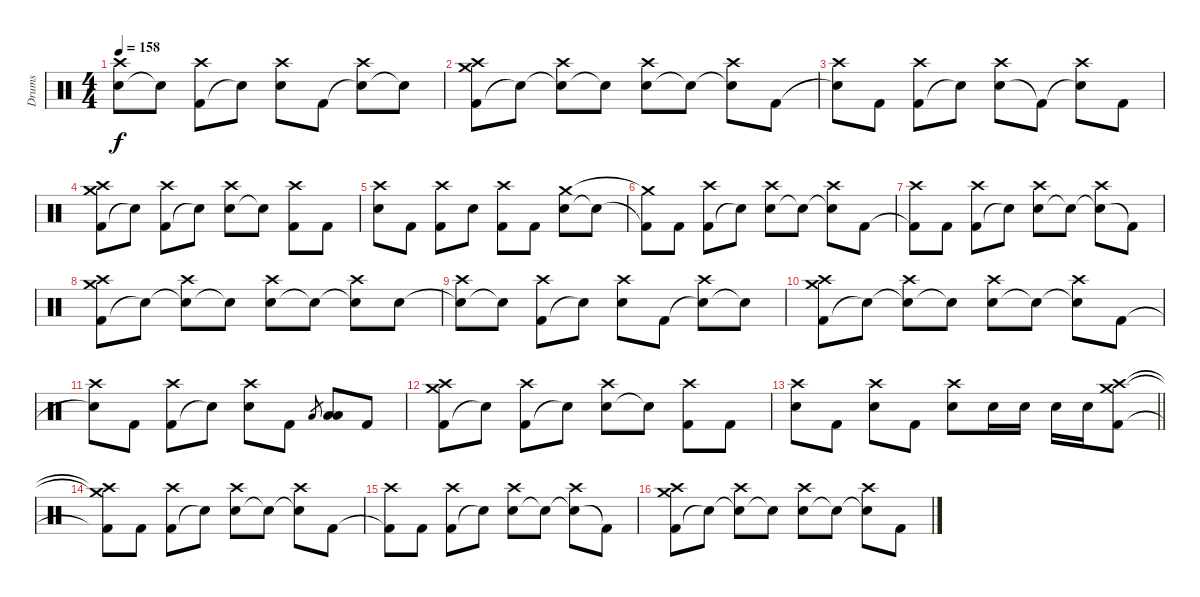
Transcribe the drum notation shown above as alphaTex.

\track ("Drums" "Drums") {instrument percussion}
\staff {score}
\articulation defaults
\ts (4 4)
\tempo 158
\clef neutral
\ks c
("Snare (hit)"{t} "Crash high (hit)").8{dy f} "Snare (hit)"{t}.8 ("Kick (hit) 2" "Crash high (hit)").8 "Snare (hit)"{t}.8 ("Electric Snare (hit)" "Crash high (hit)").8 "Kick (hit) 2".8 ("Snare (hit)"{t} "Crash high (hit)").8 "Snare (hit)"{t}.8 |
("Kick (hit) 2" "Crash medium (hit)" "Crash high (hit)").8 "Snare (hit)"{t}.8 ("Snare (hit)"{t} "Crash high (hit)").8 "Snare (hit)"{t}.8 ("Electric Snare (hit)" "Crash high (hit)").8 "Snare (hit)"{t}.8 ("Snare (hit)"{t} "Crash high (hit)").8 "Kick (hit) 2".8 |
("Snare (hit)"{t} "Crash high (hit)").8 "Kick (hit) 2".8 ("Kick (hit) 2" "Crash high (hit)").8 "Snare (hit)"{t}.8 ("Electric Snare (hit)" "Crash high (hit)").8 "Kick (hit) 2"{t}.8 ("Snare (hit)"{t} "Crash high (hit)").8 "Kick (hit) 2".8 |
("Kick (hit) 2" "Crash medium (hit)" "Crash high (hit)").8 "Snare (hit)"{t}.8 ("Kick (hit) 2" "Crash high (hit)").8 "Snare (hit)"{t}.8 ("Electric Snare (hit)" "Crash high (hit)").8 "Snare (hit)"{t}.8 ("Kick (hit) 2" "Crash high (hit)").8 "Kick (hit) 2".8 |
("Electric Snare (hit)" "Crash high (hit)").8 "Kick (hit) 2".8 ("Kick (hit) 2" "Crash high (hit)").8 "Electric Snare (hit)".8 ("Kick (hit) 2" "Crash high (hit)").8 "Kick (hit) 2".8 ("Electric Snare (hit)" "Crash medium (hit)").8 "Snare (hit)"{t}.8 |
("Kick (hit) 2"{t} "Crash medium (hit)"{t}).8 "Kick (hit) 2".8 ("Kick (hit) 2" "Crash high (hit)").8 "Snare (hit)"{t}.8 ("Electric Snare (hit)" "Crash high (hit)").8 "Snare (hit)"{t}.8 ("Snare (hit)"{t} "Crash high (hit)").8 "Kick (hit) 2".8 |
("Kick (hit) 2"{t} "Crash high (hit)").8 "Kick (hit) 2".8 ("Kick (hit) 2" "Crash high (hit)").8 "Snare (hit)"{t}.8 ("Electric Snare (hit)" "Crash high (hit)").8 "Snare (hit)"{t}.8 ("Snare (hit)"{t} "Crash high (hit)").8 "Kick (hit) 2"{t}.8 |
("Kick (hit) 2" "Crash medium (hit)" "Crash high (hit)").8 "Snare (hit)"{t}.8 ("Snare (hit)"{t} "Crash high (hit)").8 "Snare (hit)"{t}.8 ("Electric Snare (hit)" "Crash high (hit)").8 "Snare (hit)"{t}.8 ("Snare (hit)"{t} "Crash high (hit)").8 "Electric Snare (hit)".8 |
("Snare (hit)"{t} "Crash high (hit)").8 "Snare (hit)"{t}.8 ("Kick (hit) 2" "Crash high (hit)").8 "Snare (hit)"{t}.8 ("Electric Snare (hit)" "Crash high (hit)").8 "Kick (hit) 2".8 ("Snare (hit)"{t} "Crash high (hit)").8 "Snare (hit)"{t}.8 |
("Kick (hit) 2" "Crash medium (hit)" "Crash high (hit)").8 "Snare (hit)"{t}.8 ("Snare (hit)"{t} "Crash high (hit)").8 "Snare (hit)"{t}.8 ("Electric Snare (hit)" "Crash high (hit)").8 "Snare (hit)"{t}.8 ("Snare (hit)"{t} "Crash high (hit)").8 "Kick (hit) 2".8 |
("Snare (hit)"{t} "Crash high (hit)").8 "Kick (hit) 2".8 ("Kick (hit) 2" "Crash high (hit)").8 "Snare (hit)"{t}.8 ("Electric Snare (hit)" "Crash high (hit)").8 "Kick (hit) 2".8 "Low Tom (hit)".8{gr} ("Low Tom (hit)" "Low Floor Tom (hit)").8 "Kick (hit) 2".8 |
("Kick (hit) 2" "Crash medium (hit)" "Crash high (hit)").8 "Snare (hit)"{t}.8 ("Kick (hit) 2" "Crash high (hit)").8 "Snare (hit)"{t}.8 ("Electric Snare (hit)" "Crash high (hit)").8 "Snare (hit)"{t}.8 ("Kick (hit) 2" "Crash high (hit)").8 "Kick (hit) 2".8 |
\barLineRight lightlight
("Electric Snare (hit)" "Crash high (hit)").8 "Kick (hit) 2".8 ("Electric Snare (hit)" "Crash high (hit)").8 "Kick (hit) 2".8 ("Electric Snare (hit)" "Crash high (hit)").8 "Electric Snare (hit)".16 "Electric Snare (hit)".16 "Electric Snare (hit)".16 "Electric Snare (hit)".16 ("Kick (hit) 2" "Crash medium (hit)" "Crash high (hit)").8 |
("Kick (hit) 2"{t} "Crash medium (hit)"{t} "Crash high (hit)"{t}).8 "Kick (hit) 2".8 ("Kick (hit) 2" "Crash high (hit)").8 "Snare (hit)"{t}.8 ("Electric Snare (hit)" "Crash high (hit)").8 "Snare (hit)"{t}.8 ("Snare (hit)"{t} "Crash high (hit)").8 "Kick (hit) 2".8 |
("Kick (hit) 2"{t} "Crash high (hit)").8 "Kick (hit) 2".8 ("Kick (hit) 2" "Crash high (hit)").8 "Snare (hit)"{t}.8 ("Electric Snare (hit)" "Crash high (hit)").8 "Snare (hit)"{t}.8 ("Snare (hit)"{t} "Crash high (hit)").8 "Kick (hit) 2"{t}.8 |
("Kick (hit) 2" "Crash medium (hit)" "Crash high (hit)").8 "Snare (hit)"{t}.8 ("Snare (hit)"{t} "Crash high (hit)").8 "Snare (hit)"{t}.8 ("Electric Snare (hit)" "Crash high (hit)").8 "Snare (hit)"{t}.8 ("Snare (hit)"{t} "Crash high (hit)").8 "Kick (hit) 2".8
